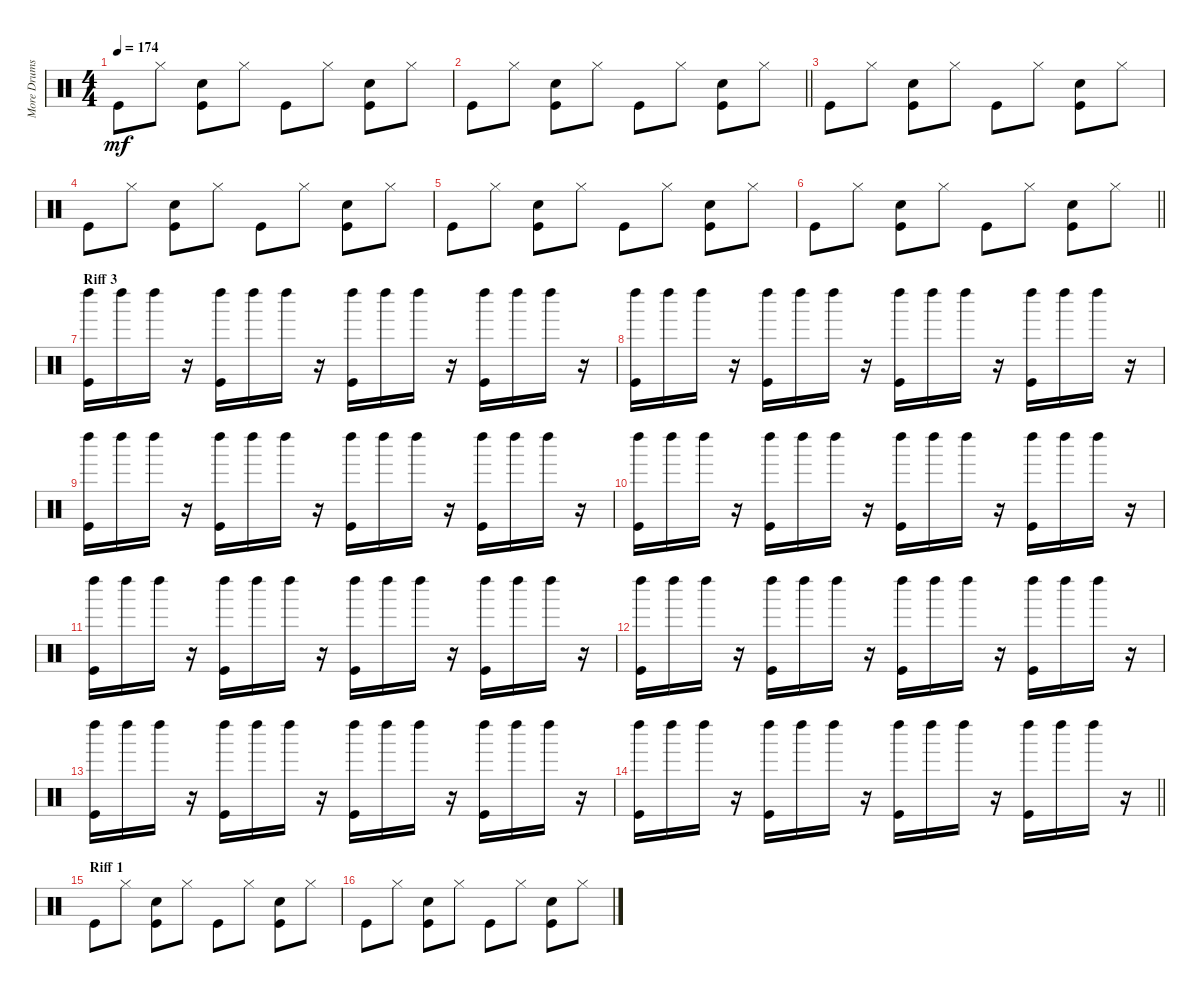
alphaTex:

\track ("More Drums" "More Drums") {instrument percussion}
\staff {score}
\articulation defaults
\ts (4 4)
\tempo 174
\clef neutral
\ks c "Kick (hit)".8{dy mf} "Hi-Hat (closed)".8
("Kick (hit)" "Electric Snare (hit)").8 "Hi-Hat (closed)".8 "Kick (hit)".8 "Hi-Hat (closed)".8 ("Kick (hit)" "Electric Snare (hit)").8 "Hi-Hat (closed)".8 |
\barLineRight lightlight "Kick (hit)".8 "Hi-Hat (closed)".8
("Kick (hit)" "Electric Snare (hit)").8 "Hi-Hat (closed)".8 "Kick (hit)".8 "Hi-Hat (closed)".8 ("Kick (hit)" "Electric Snare (hit)").8 "Hi-Hat (closed)".8 |
"Kick (hit)".8 "Hi-Hat (closed)".8 ("Kick (hit)" "Electric Snare (hit)").8 "Hi-Hat (closed)".8 "Kick (hit)".8 "Hi-Hat (closed)".8 ("Kick (hit)" "Electric Snare (hit)").8 "Hi-Hat (closed)".8 |
"Kick (hit)".8 "Hi-Hat (closed)".8 ("Kick (hit)" "Electric Snare (hit)").8 "Hi-Hat (closed)".8 "Kick (hit)".8 "Hi-Hat (closed)".8 ("Kick (hit)" "Electric Snare (hit)").8 "Hi-Hat (closed)".8 |
"Kick (hit)".8 "Hi-Hat (closed)".8 ("Kick (hit)" "Electric Snare (hit)").8 "Hi-Hat (closed)".8 "Kick (hit)".8 "Hi-Hat (closed)".8 ("Kick (hit)" "Electric Snare (hit)").8 "Hi-Hat (closed)".8 |
\barLineRight lightlight "Kick (hit)".8 "Hi-Hat (closed)".8
("Kick (hit)" "Electric Snare (hit)").8 "Hi-Hat (closed)".8 "Kick (hit)".8 "Hi-Hat (closed)".8 ("Kick (hit)" "Electric Snare (hit)").8 "Hi-Hat (closed)".8 |
\section ("" "Riff 3")
("Kick (hit)" "Left Maraca (hit)").16 "Left Maraca (hit)".16 "Left Maraca (hit)".16 r.16 ("Kick (hit)" "Left Maraca (hit)").16 "Left Maraca (hit)".16 "Left Maraca (hit)".16 r.16 ("Kick (hit)" "Left Maraca (hit)").16 "Left Maraca (hit)".16 "Left Maraca (hit)".16 r.16 ("Kick (hit)" "Left Maraca (hit)").16 "Left Maraca (hit)".16 "Left Maraca (hit)".16 r.16 |
("Kick (hit)" "Left Maraca (hit)").16 "Left Maraca (hit)".16 "Left Maraca (hit)".16 r.16 ("Kick (hit)" "Left Maraca (hit)").16 "Left Maraca (hit)".16 "Left Maraca (hit)".16 r.16 ("Kick (hit)" "Left Maraca (hit)").16 "Left Maraca (hit)".16 "Left Maraca (hit)".16 r.16 ("Kick (hit)" "Left Maraca (hit)").16 "Left Maraca (hit)".16 "Left Maraca (hit)".16 r.16 |
("Kick (hit)" "Left Maraca (hit)").16 "Left Maraca (hit)".16 "Left Maraca (hit)".16 r.16 ("Kick (hit)" "Left Maraca (hit)").16 "Left Maraca (hit)".16 "Left Maraca (hit)".16 r.16 ("Kick (hit)" "Left Maraca (hit)").16 "Left Maraca (hit)".16 "Left Maraca (hit)".16 r.16 ("Kick (hit)" "Left Maraca (hit)").16 "Left Maraca (hit)".16 "Left Maraca (hit)".16 r.16 |
("Kick (hit)" "Left Maraca (hit)").16 "Left Maraca (hit)".16 "Left Maraca (hit)".16 r.16 ("Kick (hit)" "Left Maraca (hit)").16 "Left Maraca (hit)".16 "Left Maraca (hit)".16 r.16 ("Kick (hit)" "Left Maraca (hit)").16 "Left Maraca (hit)".16 "Left Maraca (hit)".16 r.16 ("Kick (hit)" "Left Maraca (hit)").16 "Left Maraca (hit)".16 "Left Maraca (hit)".16 r.16 |
("Kick (hit)" "Left Maraca (hit)").16 "Left Maraca (hit)".16 "Left Maraca (hit)".16 r.16 ("Kick (hit)" "Left Maraca (hit)").16 "Left Maraca (hit)".16 "Left Maraca (hit)".16 r.16 ("Kick (hit)" "Left Maraca (hit)").16 "Left Maraca (hit)".16 "Left Maraca (hit)".16 r.16 ("Kick (hit)" "Left Maraca (hit)").16 "Left Maraca (hit)".16 "Left Maraca (hit)".16 r.16 |
("Kick (hit)" "Left Maraca (hit)").16 "Left Maraca (hit)".16 "Left Maraca (hit)".16 r.16 ("Kick (hit)" "Left Maraca (hit)").16 "Left Maraca (hit)".16 "Left Maraca (hit)".16 r.16 ("Kick (hit)" "Left Maraca (hit)").16 "Left Maraca (hit)".16 "Left Maraca (hit)".16 r.16 ("Kick (hit)" "Left Maraca (hit)").16 "Left Maraca (hit)".16 "Left Maraca (hit)".16 r.16 |
("Kick (hit)" "Left Maraca (hit)").16 "Left Maraca (hit)".16 "Left Maraca (hit)".16 r.16 ("Kick (hit)" "Left Maraca (hit)").16 "Left Maraca (hit)".16 "Left Maraca (hit)".16 r.16 ("Kick (hit)" "Left Maraca (hit)").16 "Left Maraca (hit)".16 "Left Maraca (hit)".16 r.16 ("Kick (hit)" "Left Maraca (hit)").16 "Left Maraca (hit)".16 "Left Maraca (hit)".16 r.16 |
\barLineRight lightlight
("Kick (hit)" "Left Maraca (hit)").16 "Left Maraca (hit)".16 "Left Maraca (hit)".16 r.16 ("Kick (hit)" "Left Maraca (hit)").16 "Left Maraca (hit)".16 "Left Maraca (hit)".16 r.16 ("Kick (hit)" "Left Maraca (hit)").16 "Left Maraca (hit)".16 "Left Maraca (hit)".16 r.16 ("Kick (hit)" "Left Maraca (hit)").16 "Left Maraca (hit)".16 "Left Maraca (hit)".16 r.16 |
\section ("" "Riff 1")
"Kick (hit)".8 "Hi-Hat (closed)".8 ("Kick (hit)" "Electric Snare (hit)").8 "Hi-Hat (closed)".8 "Kick (hit)".8 "Hi-Hat (closed)".8 ("Kick (hit)" "Electric Snare (hit)").8 "Hi-Hat (closed)".8 |
"Kick (hit)".8 "Hi-Hat (closed)".8 ("Kick (hit)" "Electric Snare (hit)").8 "Hi-Hat (closed)".8 "Kick (hit)".8 "Hi-Hat (closed)".8 ("Kick (hit)" "Electric Snare (hit)").8 "Hi-Hat (closed)".8
